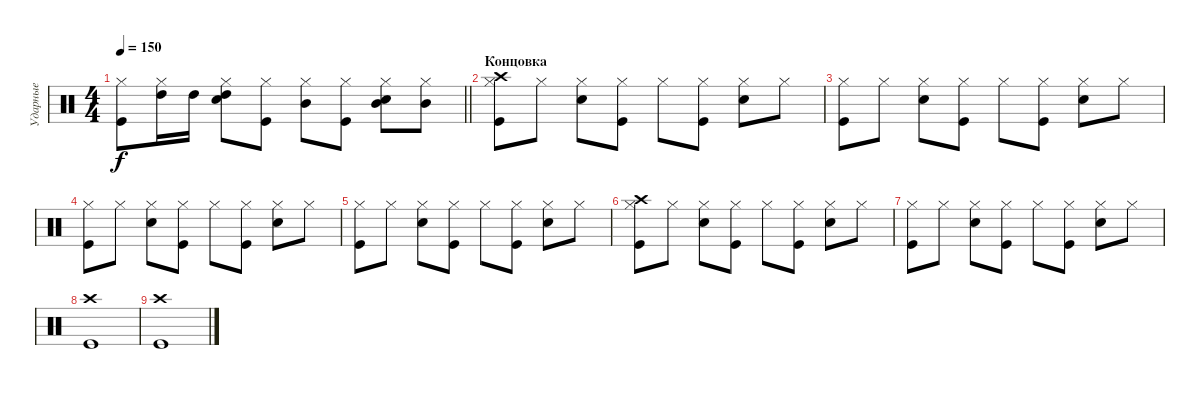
\track ("Ударные" "Ударные") {instrument percussion}
\staff {score}
\articulation defaults
\ts (4 4)
\tempo 150
\clef neutral
\barLineRight lightlight
\ks c
("Kick (hit)" "Hi-Hat (closed)").8{dy f} ("Hi-Hat (closed)" "High Tom (hit)").16 "High Tom (hit)".16 ("Snare (hit) 2" "Hi-Hat (closed)" "High Tom (hit)").8 ("Kick (hit)" "Hi-Hat (closed)").8 ("Hi-Hat (closed)" "Mid Tom (hit)").8 ("Kick (hit)" "Hi-Hat (closed)").8 ("Snare (hit) 2" "Hi-Hat (closed)" "Mid Tom (hit)").8 ("Hi-Hat (closed)" "Mid Tom (hit)").8 |
\section ("" "Концовка")
("Kick (hit)" "Hi-Hat (closed)" "Crash high (hit)").8 "Hi-Hat (closed)".8 ("Snare (hit) 2" "Hi-Hat (closed)").8 ("Kick (hit)" "Hi-Hat (closed)").8 "Hi-Hat (closed)".8 ("Kick (hit)" "Hi-Hat (closed)").8 ("Snare (hit) 2" "Hi-Hat (closed)").8 "Hi-Hat (closed)".8 |
("Kick (hit)" "Hi-Hat (closed)").8 "Hi-Hat (closed)".8 ("Snare (hit) 2" "Hi-Hat (closed)").8 ("Kick (hit)" "Hi-Hat (closed)").8 "Hi-Hat (closed)".8 ("Kick (hit)" "Hi-Hat (closed)").8 ("Snare (hit) 2" "Hi-Hat (closed)").8 "Hi-Hat (closed)".8 |
("Kick (hit)" "Hi-Hat (closed)").8 "Hi-Hat (closed)".8 ("Snare (hit) 2" "Hi-Hat (closed)").8 ("Kick (hit)" "Hi-Hat (closed)").8 "Hi-Hat (closed)".8 ("Kick (hit)" "Hi-Hat (closed)").8 ("Snare (hit) 2" "Hi-Hat (closed)").8 "Hi-Hat (closed)".8 |
("Kick (hit)" "Hi-Hat (closed)").8 "Hi-Hat (closed)".8 ("Snare (hit) 2" "Hi-Hat (closed)").8 ("Kick (hit)" "Hi-Hat (closed)").8 "Hi-Hat (closed)".8 ("Kick (hit)" "Hi-Hat (closed)").8 ("Snare (hit) 2" "Hi-Hat (closed)").8 "Hi-Hat (closed)".8 |
("Kick (hit)" "Hi-Hat (closed)" "Crash high (hit)").8 "Hi-Hat (closed)".8 ("Snare (hit) 2" "Hi-Hat (closed)").8 ("Kick (hit)" "Hi-Hat (closed)").8 "Hi-Hat (closed)".8 ("Kick (hit)" "Hi-Hat (closed)").8 ("Snare (hit) 2" "Hi-Hat (closed)").8 "Hi-Hat (closed)".8 |
("Kick (hit)" "Hi-Hat (closed)").8 "Hi-Hat (closed)".8 ("Snare (hit) 2" "Hi-Hat (closed)").8 ("Kick (hit)" "Hi-Hat (closed)").8 "Hi-Hat (closed)".8 ("Kick (hit)" "Hi-Hat (closed)").8 ("Snare (hit) 2" "Hi-Hat (closed)").8 "Hi-Hat (closed)".8 |
("Kick (hit)" "Crash high (hit)").1 |
("Kick (hit)" "Crash high (hit)").1
